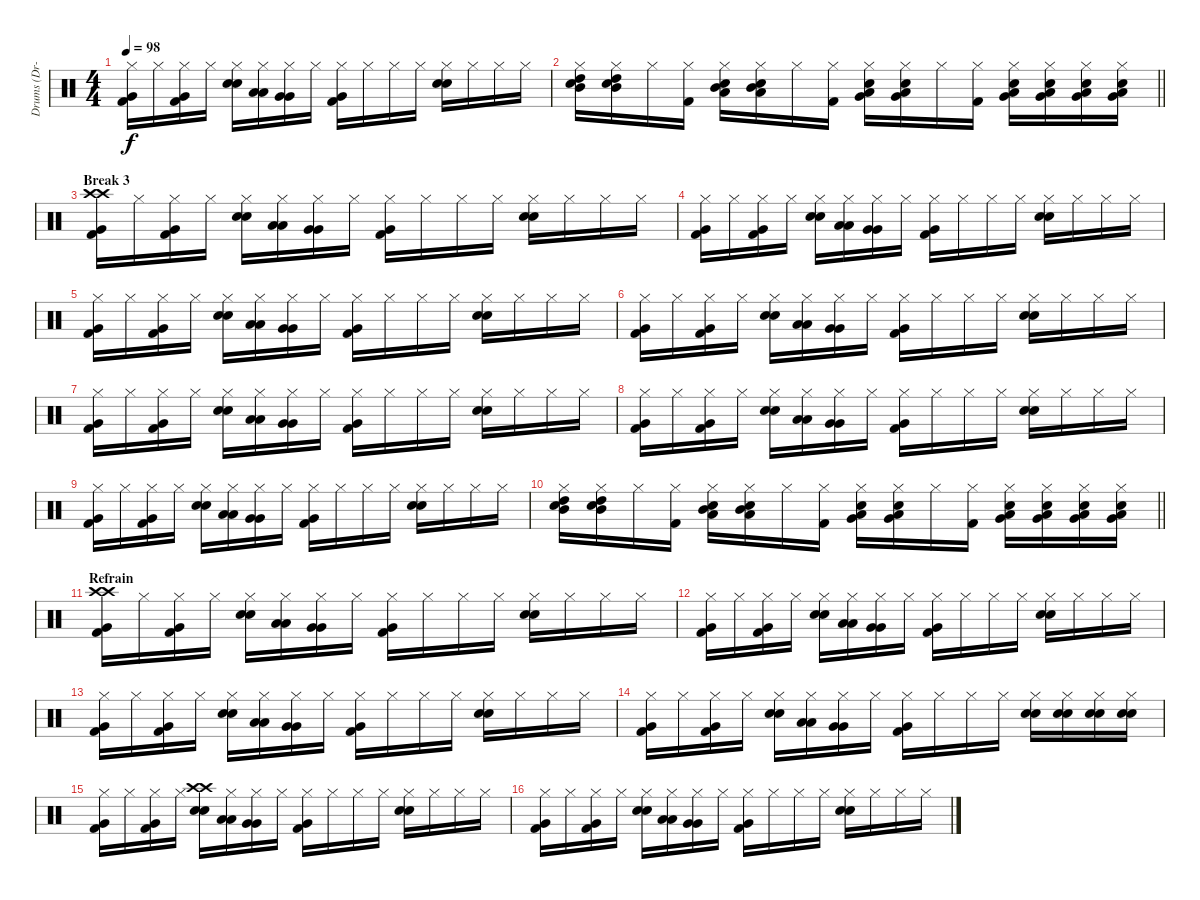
\track ("Drums (Dr-0)" "Drums (Dr-") {instrument percussion}
\staff {score}
\articulation defaults
\ts (4 4)
\tempo 98
\clef neutral
\ks c
("Hi-Hat (closed)" "Very Low Tom (hit)" "Kick (hit) 2").16{dy f} "Hi-Hat (closed)".16 ("Hi-Hat (closed)" "Very Low Tom (hit)" "Kick (hit) 2").16 "Hi-Hat (closed)".16 ("Hi-Hat (closed)" "Electric Snare (hit)" "Snare (hit) 2").16 ("Hi-Hat (closed)" "Low Tom (hit)" "Low Tom (hit)").16 ("Hi-Hat (closed)" "Very Low Tom (hit)" "Very Low Tom (hit)").16 "Hi-Hat (closed)".16 ("Hi-Hat (closed)" "Very Low Tom (hit)" "Kick (hit) 2").16 "Hi-Hat (closed)".16 "Hi-Hat (closed)".16 "Hi-Hat (closed)".16 ("Hi-Hat (closed)" "Electric Snare (hit)" "Snare (hit) 2").16 "Hi-Hat (closed)".16 "Hi-Hat (closed)".16 "Hi-Hat (closed)".16 |
\barLineRight lightlight
("Hi-Hat (closed)" "High Tom (hit)" "Mid Tom (hit)" "Electric Snare (hit)").16 ("Hi-Hat (closed)" "High Tom (hit)" "Mid Tom (hit)" "Electric Snare (hit)").16 "Hi-Hat (closed)".16 ("Hi-Hat (closed)" "Kick (hit) 2").16 ("Hi-Hat (closed)" "Mid Tom (hit)" "Low Tom (hit)" "Electric Snare (hit)").16 ("Hi-Hat (closed)" "Mid Tom (hit)" "Low Tom (hit)" "Electric Snare (hit)").16 "Hi-Hat (closed)".16 ("Hi-Hat (closed)" "Kick (hit) 2").16 ("Hi-Hat (closed)" "Low Tom (hit)" "Very Low Tom (hit)" "Electric Snare (hit)").16 ("Hi-Hat (closed)" "Low Tom (hit)" "Very Low Tom (hit)" "Electric Snare (hit)").16 "Hi-Hat (closed)".16 ("Hi-Hat (closed)" "Kick (hit) 2").16 ("Hi-Hat (closed)" "Very Low Tom (hit)" "Low Floor Tom (hit)" "Electric Snare (hit)").16 ("Hi-Hat (closed)" "Very Low Tom (hit)" "Low Floor Tom (hit)" "Electric Snare (hit)").16 ("Hi-Hat (closed)" "Very Low Tom (hit)" "Low Floor Tom (hit)" "Electric Snare (hit)").16 ("Hi-Hat (closed)" "Very Low Tom (hit)" "Low Floor Tom (hit)" "Electric Snare (hit)").16 |
\section ("" "Break 3")
("Crash high (hit)" "Crash high (hit)" "Very Low Tom (hit)" "Kick (hit) 2").16 "Hi-Hat (closed)".16 ("Hi-Hat (closed)" "Very Low Tom (hit)" "Kick (hit) 2").16 "Hi-Hat (closed)".16 ("Hi-Hat (closed)" "Electric Snare (hit)" "Snare (hit) 2").16 ("Hi-Hat (closed)" "Low Tom (hit)" "Low Tom (hit)").16 ("Hi-Hat (closed)" "Very Low Tom (hit)" "Very Low Tom (hit)").16 "Hi-Hat (closed)".16 ("Hi-Hat (closed)" "Very Low Tom (hit)" "Kick (hit) 2").16 "Hi-Hat (closed)".16 "Hi-Hat (closed)".16 "Hi-Hat (closed)".16 ("Hi-Hat (closed)" "Electric Snare (hit)" "Snare (hit) 2").16 "Hi-Hat (closed)".16 "Hi-Hat (closed)".16 "Hi-Hat (closed)".16 |
("Hi-Hat (closed)" "Very Low Tom (hit)" "Kick (hit) 2").16 "Hi-Hat (closed)".16 ("Hi-Hat (closed)" "Very Low Tom (hit)" "Kick (hit) 2").16 "Hi-Hat (closed)".16 ("Hi-Hat (closed)" "Electric Snare (hit)" "Snare (hit) 2").16 ("Hi-Hat (closed)" "Low Tom (hit)" "Low Tom (hit)").16 ("Hi-Hat (closed)" "Very Low Tom (hit)" "Very Low Tom (hit)").16 "Hi-Hat (closed)".16 ("Hi-Hat (closed)" "Very Low Tom (hit)" "Kick (hit) 2").16 "Hi-Hat (closed)".16 "Hi-Hat (closed)".16 "Hi-Hat (closed)".16 ("Hi-Hat (closed)" "Electric Snare (hit)" "Snare (hit) 2").16 "Hi-Hat (closed)".16 "Hi-Hat (closed)".16 "Hi-Hat (closed)".16 |
("Hi-Hat (closed)" "Very Low Tom (hit)" "Kick (hit) 2").16 "Hi-Hat (closed)".16 ("Hi-Hat (closed)" "Very Low Tom (hit)" "Kick (hit) 2").16 "Hi-Hat (closed)".16 ("Hi-Hat (closed)" "Electric Snare (hit)" "Snare (hit) 2").16 ("Hi-Hat (closed)" "Low Tom (hit)" "Low Tom (hit)").16 ("Hi-Hat (closed)" "Very Low Tom (hit)" "Very Low Tom (hit)").16 "Hi-Hat (closed)".16 ("Hi-Hat (closed)" "Very Low Tom (hit)" "Kick (hit) 2").16 "Hi-Hat (closed)".16 "Hi-Hat (closed)".16 "Hi-Hat (closed)".16 ("Hi-Hat (closed)" "Electric Snare (hit)" "Snare (hit) 2").16 "Hi-Hat (closed)".16 "Hi-Hat (closed)".16 "Hi-Hat (closed)".16 |
("Hi-Hat (closed)" "Very Low Tom (hit)" "Kick (hit) 2").16 "Hi-Hat (closed)".16 ("Hi-Hat (closed)" "Very Low Tom (hit)" "Kick (hit) 2").16 "Hi-Hat (closed)".16 ("Hi-Hat (closed)" "Electric Snare (hit)" "Snare (hit) 2").16 ("Hi-Hat (closed)" "Low Tom (hit)" "Low Tom (hit)").16 ("Hi-Hat (closed)" "Very Low Tom (hit)" "Very Low Tom (hit)").16 "Hi-Hat (closed)".16 ("Hi-Hat (closed)" "Very Low Tom (hit)" "Kick (hit) 2").16 "Hi-Hat (closed)".16 "Hi-Hat (closed)".16 "Hi-Hat (closed)".16 ("Hi-Hat (closed)" "Electric Snare (hit)" "Snare (hit) 2").16 "Hi-Hat (closed)".16 "Hi-Hat (closed)".16 "Hi-Hat (closed)".16 |
("Hi-Hat (closed)" "Very Low Tom (hit)" "Kick (hit) 2").16 "Hi-Hat (closed)".16 ("Hi-Hat (closed)" "Very Low Tom (hit)" "Kick (hit) 2").16 "Hi-Hat (closed)".16 ("Hi-Hat (closed)" "Electric Snare (hit)" "Snare (hit) 2").16 ("Hi-Hat (closed)" "Low Tom (hit)" "Low Tom (hit)").16 ("Hi-Hat (closed)" "Very Low Tom (hit)" "Very Low Tom (hit)").16 "Hi-Hat (closed)".16 ("Hi-Hat (closed)" "Very Low Tom (hit)" "Kick (hit) 2").16 "Hi-Hat (closed)".16 "Hi-Hat (closed)".16 "Hi-Hat (closed)".16 ("Hi-Hat (closed)" "Electric Snare (hit)" "Snare (hit) 2").16 "Hi-Hat (closed)".16 "Hi-Hat (closed)".16 "Hi-Hat (closed)".16 |
("Hi-Hat (closed)" "Very Low Tom (hit)" "Kick (hit) 2").16 "Hi-Hat (closed)".16 ("Hi-Hat (closed)" "Very Low Tom (hit)" "Kick (hit) 2").16 "Hi-Hat (closed)".16 ("Hi-Hat (closed)" "Electric Snare (hit)" "Snare (hit) 2").16 ("Hi-Hat (closed)" "Low Tom (hit)" "Low Tom (hit)").16 ("Hi-Hat (closed)" "Very Low Tom (hit)" "Very Low Tom (hit)").16 "Hi-Hat (closed)".16 ("Hi-Hat (closed)" "Very Low Tom (hit)" "Kick (hit) 2").16 "Hi-Hat (closed)".16 "Hi-Hat (closed)".16 "Hi-Hat (closed)".16 ("Hi-Hat (closed)" "Electric Snare (hit)" "Snare (hit) 2").16 "Hi-Hat (closed)".16 "Hi-Hat (closed)".16 "Hi-Hat (closed)".16 |
("Hi-Hat (closed)" "Very Low Tom (hit)" "Kick (hit) 2").16 "Hi-Hat (closed)".16 ("Hi-Hat (closed)" "Very Low Tom (hit)" "Kick (hit) 2").16 "Hi-Hat (closed)".16 ("Hi-Hat (closed)" "Electric Snare (hit)" "Snare (hit) 2").16 ("Hi-Hat (closed)" "Low Tom (hit)" "Low Tom (hit)").16 ("Hi-Hat (closed)" "Very Low Tom (hit)" "Very Low Tom (hit)").16 "Hi-Hat (closed)".16 ("Hi-Hat (closed)" "Very Low Tom (hit)" "Kick (hit) 2").16 "Hi-Hat (closed)".16 "Hi-Hat (closed)".16 "Hi-Hat (closed)".16 ("Hi-Hat (closed)" "Electric Snare (hit)" "Snare (hit) 2").16 "Hi-Hat (closed)".16 "Hi-Hat (closed)".16 "Hi-Hat (closed)".16 |
\barLineRight lightlight
("Hi-Hat (closed)" "High Tom (hit)" "Mid Tom (hit)" "Electric Snare (hit)").16 ("Hi-Hat (closed)" "High Tom (hit)" "Mid Tom (hit)" "Electric Snare (hit)").16 "Hi-Hat (closed)".16 ("Hi-Hat (closed)" "Kick (hit) 2").16 ("Hi-Hat (closed)" "Mid Tom (hit)" "Low Tom (hit)" "Electric Snare (hit)").16 ("Hi-Hat (closed)" "Mid Tom (hit)" "Low Tom (hit)" "Electric Snare (hit)").16 "Hi-Hat (closed)".16 ("Hi-Hat (closed)" "Kick (hit) 2").16 ("Hi-Hat (closed)" "Low Tom (hit)" "Very Low Tom (hit)" "Electric Snare (hit)").16 ("Hi-Hat (closed)" "Low Tom (hit)" "Very Low Tom (hit)" "Electric Snare (hit)").16 "Hi-Hat (closed)".16 ("Hi-Hat (closed)" "Kick (hit) 2").16 ("Hi-Hat (closed)" "Very Low Tom (hit)" "Low Floor Tom (hit)" "Electric Snare (hit)").16 ("Hi-Hat (closed)" "Very Low Tom (hit)" "Low Floor Tom (hit)" "Electric Snare (hit)").16 ("Hi-Hat (closed)" "Very Low Tom (hit)" "Low Floor Tom (hit)" "Electric Snare (hit)").16 ("Hi-Hat (closed)" "Very Low Tom (hit)" "Low Floor Tom (hit)" "Electric Snare (hit)").16 |
\section ("" "Refrain")
("Crash high (hit)" "Crash high (hit)" "Very Low Tom (hit)" "Kick (hit) 2").16 "Hi-Hat (closed)".16 ("Hi-Hat (closed)" "Very Low Tom (hit)" "Kick (hit) 2").16 "Hi-Hat (closed)".16 ("Hi-Hat (closed)" "Electric Snare (hit)" "Snare (hit) 2").16 ("Hi-Hat (closed)" "Low Tom (hit)" "Low Tom (hit)").16 ("Hi-Hat (closed)" "Very Low Tom (hit)" "Very Low Tom (hit)").16 "Hi-Hat (closed)".16 ("Hi-Hat (closed)" "Very Low Tom (hit)" "Kick (hit) 2").16 "Hi-Hat (closed)".16 "Hi-Hat (closed)".16 "Hi-Hat (closed)".16 ("Hi-Hat (closed)" "Electric Snare (hit)" "Snare (hit) 2").16 "Hi-Hat (closed)".16 "Hi-Hat (closed)".16 "Hi-Hat (closed)".16 |
("Hi-Hat (closed)" "Very Low Tom (hit)" "Kick (hit) 2").16 "Hi-Hat (closed)".16 ("Hi-Hat (closed)" "Very Low Tom (hit)" "Kick (hit) 2").16 "Hi-Hat (closed)".16 ("Hi-Hat (closed)" "Electric Snare (hit)" "Snare (hit) 2").16 ("Hi-Hat (closed)" "Low Tom (hit)" "Low Tom (hit)").16 ("Hi-Hat (closed)" "Very Low Tom (hit)" "Very Low Tom (hit)").16 "Hi-Hat (closed)".16 ("Hi-Hat (closed)" "Very Low Tom (hit)" "Kick (hit) 2").16 "Hi-Hat (closed)".16 "Hi-Hat (closed)".16 "Hi-Hat (closed)".16 ("Hi-Hat (closed)" "Electric Snare (hit)" "Snare (hit) 2").16 "Hi-Hat (closed)".16 "Hi-Hat (closed)".16 "Hi-Hat (closed)".16 |
("Hi-Hat (closed)" "Very Low Tom (hit)" "Kick (hit) 2").16 "Hi-Hat (closed)".16 ("Hi-Hat (closed)" "Very Low Tom (hit)" "Kick (hit) 2").16 "Hi-Hat (closed)".16 ("Hi-Hat (closed)" "Electric Snare (hit)" "Snare (hit) 2").16 ("Hi-Hat (closed)" "Low Tom (hit)" "Low Tom (hit)").16 ("Hi-Hat (closed)" "Very Low Tom (hit)" "Very Low Tom (hit)").16 "Hi-Hat (closed)".16 ("Hi-Hat (closed)" "Very Low Tom (hit)" "Kick (hit) 2").16 "Hi-Hat (closed)".16 "Hi-Hat (closed)".16 "Hi-Hat (closed)".16 ("Hi-Hat (closed)" "Electric Snare (hit)" "Snare (hit) 2").16 "Hi-Hat (closed)".16 "Hi-Hat (closed)".16 "Hi-Hat (closed)".16 |
("Hi-Hat (closed)" "Very Low Tom (hit)" "Kick (hit) 2").16 "Hi-Hat (closed)".16 ("Hi-Hat (closed)" "Very Low Tom (hit)" "Kick (hit) 2").16 "Hi-Hat (closed)".16 ("Hi-Hat (closed)" "Electric Snare (hit)" "Snare (hit) 2").16 ("Hi-Hat (closed)" "Low Tom (hit)" "Low Tom (hit)").16 ("Hi-Hat (closed)" "Very Low Tom (hit)" "Very Low Tom (hit)").16 "Hi-Hat (closed)".16 ("Hi-Hat (closed)" "Very Low Tom (hit)" "Kick (hit) 2").16 "Hi-Hat (closed)".16 "Hi-Hat (closed)".16 "Hi-Hat (closed)".16 ("Hi-Hat (closed)" "Electric Snare (hit)" "Snare (hit) 2").16 ("Hi-Hat (closed)" "Electric Snare (hit)" "Snare (hit) 2").16 ("Hi-Hat (closed)" "Electric Snare (hit)" "Snare (hit) 2").16 ("Hi-Hat (closed)" "Electric Snare (hit)" "Snare (hit) 2").16 |
("Hi-Hat (closed)" "Very Low Tom (hit)" "Kick (hit) 2").16 "Hi-Hat (closed)".16 ("Hi-Hat (closed)" "Very Low Tom (hit)" "Kick (hit) 2").16 "Hi-Hat (closed)".16 ("Crash high (hit)" "Crash high (hit)" "Electric Snare (hit)" "Snare (hit) 2").16 ("Hi-Hat (closed)" "Low Tom (hit)" "Low Tom (hit)").16 ("Hi-Hat (closed)" "Very Low Tom (hit)" "Very Low Tom (hit)").16 "Hi-Hat (closed)".16 ("Hi-Hat (closed)" "Very Low Tom (hit)" "Kick (hit) 2").16 "Hi-Hat (closed)".16 "Hi-Hat (closed)".16 "Hi-Hat (closed)".16 ("Hi-Hat (closed)" "Electric Snare (hit)" "Snare (hit) 2").16 "Hi-Hat (closed)".16 "Hi-Hat (closed)".16 "Hi-Hat (closed)".16 |
("Hi-Hat (closed)" "Very Low Tom (hit)" "Kick (hit) 2").16 "Hi-Hat (closed)".16 ("Hi-Hat (closed)" "Very Low Tom (hit)" "Kick (hit) 2").16 "Hi-Hat (closed)".16 ("Hi-Hat (closed)" "Electric Snare (hit)" "Snare (hit) 2").16 ("Hi-Hat (closed)" "Low Tom (hit)" "Low Tom (hit)").16 ("Hi-Hat (closed)" "Very Low Tom (hit)" "Very Low Tom (hit)").16 "Hi-Hat (closed)".16 ("Hi-Hat (closed)" "Very Low Tom (hit)" "Kick (hit) 2").16 "Hi-Hat (closed)".16 "Hi-Hat (closed)".16 "Hi-Hat (closed)".16 ("Hi-Hat (closed)" "Electric Snare (hit)" "Snare (hit) 2").16 "Hi-Hat (closed)".16 "Hi-Hat (closed)".16 "Hi-Hat (closed)".16
